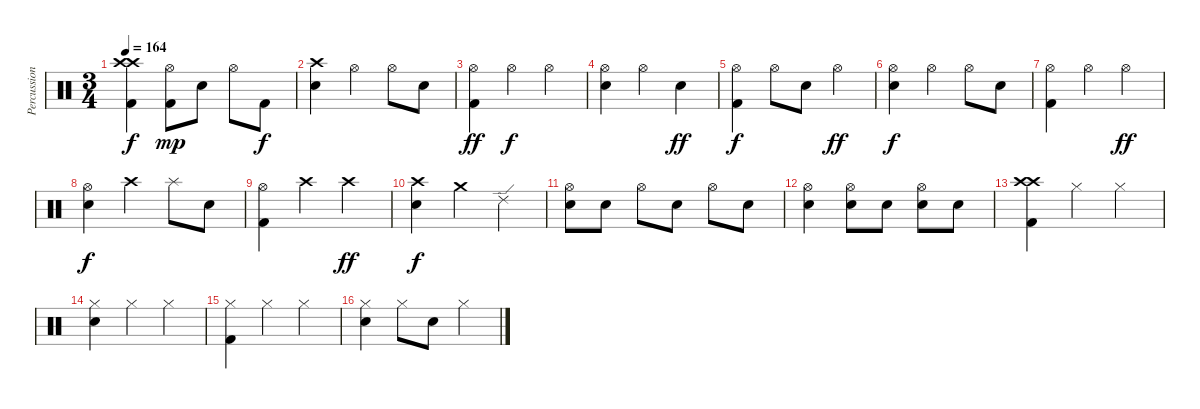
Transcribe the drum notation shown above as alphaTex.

\track ("Percussion" "Percussion") {instrument percussion}
\staff {score}
\articulation defaults
\ts (3 4)
\tempo 164
\clef neutral
\ks c
("Crash high (hit)" "Crash high (hit)" "Kick (hit) 2").4{dy f} ("Hi-Hat (open)" "Kick (hit) 2").8{dy mp} "Snare (hit) 2".8 "Hi-Hat (open)".8 "Kick (hit) 2".8{dy f} |
("Crash high (hit)" "Snare (hit) 2").4 "Hi-Hat (open)".4 "Hi-Hat (open)".8 "Snare (hit) 2".8 |
("Hi-Hat (open)" "Kick (hit) 2").4{dy ff} "Hi-Hat (open)".4{dy f} "Hi-Hat (open)".4 |
("Hi-Hat (open)" "Snare (hit) 2").4 "Hi-Hat (open)".4 "Snare (hit) 2".4{dy ff} |
("Hi-Hat (open)" "Kick (hit) 2").4{dy f} "Hi-Hat (open)".8 "Snare (hit) 2".8 "Hi-Hat (open)".4{dy ff} |
("Hi-Hat (open)" "Snare (hit) 2").4{dy f} "Hi-Hat (open)".4 "Hi-Hat (open)".8 "Snare (hit) 2".8 |
("Hi-Hat (open)" "Kick (hit) 2").4 "Hi-Hat (open)".4 "Hi-Hat (open)".4{dy ff} |
("Hi-Hat (open)" "Snare (hit) 2").4{dy f} "Crash high (hit)".4 "Splash (hit)".8 "Snare (hit) 2".8 |
("Hi-Hat (open)" "Kick (hit) 2").4 "Crash high (hit)".4 "Crash high (hit)".4{dy ff} |
("Crash high (hit)" "Snare (hit) 2").4{dy f} "Crash medium (hit)".4 "Ride (edge) 2".4 |
("Hi-Hat (open)" "Snare (hit) 2").8 "Snare (hit) 2".8 "Hi-Hat (open)".8 "Snare (hit) 2".8 "Hi-Hat (open)".8 "Snare (hit) 2".8 |
("Hi-Hat (open)" "Snare (hit) 2").4 ("Hi-Hat (open)" "Snare (hit) 2").8 "Snare (hit) 2".8 ("Hi-Hat (open)" "Snare (hit) 2").8 "Snare (hit) 2".8 |
("Crash high (hit)" "Crash high (hit)" "Kick (hit) 2").4 "Hi-Hat (closed)".4 "Hi-Hat (closed)".4 |
("Hi-Hat (closed)" "Snare (hit) 2").4 "Hi-Hat (closed)".4 "Hi-Hat (closed)".4 |
("Hi-Hat (closed)" "Kick (hit) 2").4 "Hi-Hat (closed)".4 "Hi-Hat (closed)".4 |
("Hi-Hat (closed)" "Snare (hit) 2").4 "Hi-Hat (closed)".8 "Snare (hit) 2".8 "Hi-Hat (closed)".4
